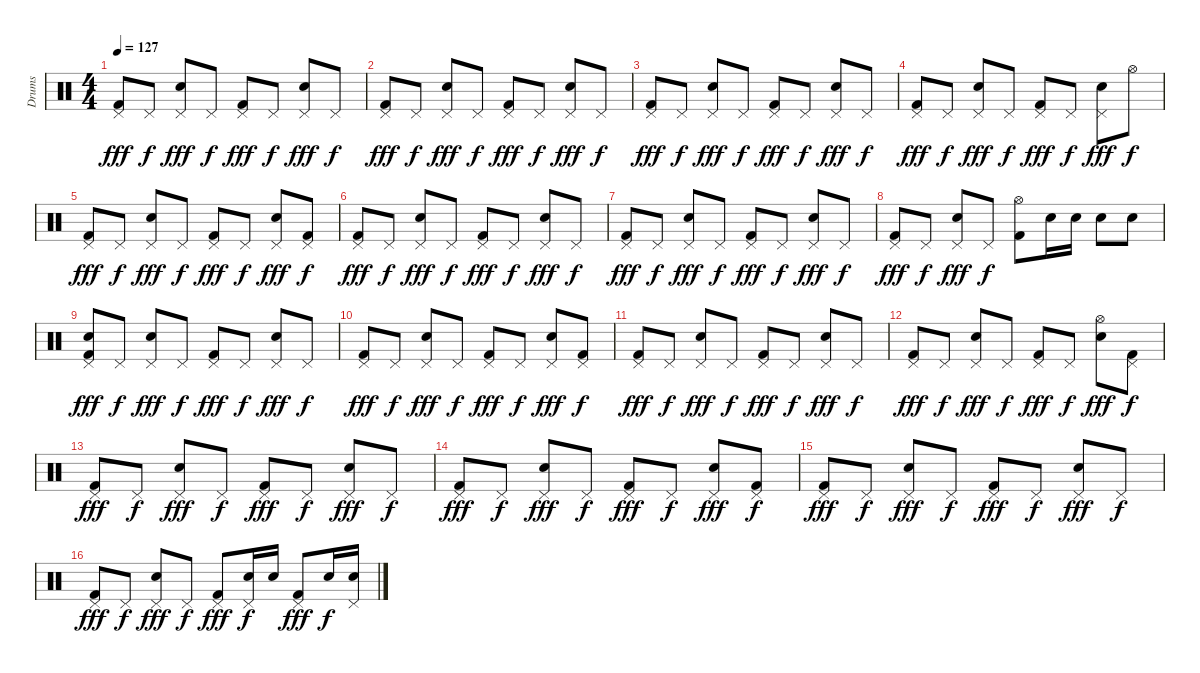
\track ("Drums" "Drums") {instrument percussion}
\staff {score}
\articulation defaults
\ts (4 4)
\tempo 127
\clef neutral
\ks c
("Pedal Hi-Hat (hit)" "Kick (hit) 2").8{dy fff} "Pedal Hi-Hat (hit)".8{dy f} ("Pedal Hi-Hat (hit)" "Snare (hit) 2").8{dy fff} "Pedal Hi-Hat (hit)".8{dy f} ("Pedal Hi-Hat (hit)" "Kick (hit) 2").8{dy fff} "Pedal Hi-Hat (hit)".8{dy f} ("Pedal Hi-Hat (hit)" "Snare (hit) 2").8{dy fff} "Pedal Hi-Hat (hit)".8{dy f} |
("Pedal Hi-Hat (hit)" "Kick (hit) 2").8{dy fff} "Pedal Hi-Hat (hit)".8{dy f} ("Pedal Hi-Hat (hit)" "Snare (hit) 2").8{dy fff} "Pedal Hi-Hat (hit)".8{dy f} ("Pedal Hi-Hat (hit)" "Kick (hit) 2").8{dy fff} "Pedal Hi-Hat (hit)".8{dy f} ("Pedal Hi-Hat (hit)" "Snare (hit) 2").8{dy fff} "Pedal Hi-Hat (hit)".8{dy f} |
("Pedal Hi-Hat (hit)" "Kick (hit) 2").8{dy fff} "Pedal Hi-Hat (hit)".8{dy f} ("Pedal Hi-Hat (hit)" "Snare (hit) 2").8{dy fff} "Pedal Hi-Hat (hit)".8{dy f} ("Pedal Hi-Hat (hit)" "Kick (hit) 2").8{dy fff} "Pedal Hi-Hat (hit)".8{dy f} ("Pedal Hi-Hat (hit)" "Snare (hit) 2").8{dy fff} "Pedal Hi-Hat (hit)".8{dy f} |
("Pedal Hi-Hat (hit)" "Kick (hit) 2").8{dy fff} "Pedal Hi-Hat (hit)".8{dy f} ("Pedal Hi-Hat (hit)" "Snare (hit) 2").8{dy fff} "Pedal Hi-Hat (hit)".8{dy f} ("Pedal Hi-Hat (hit)" "Kick (hit) 2").8{dy fff} "Pedal Hi-Hat (hit)".8{dy f} ("Pedal Hi-Hat (hit)" "Snare (hit) 2").8{dy fff} "Hi-Hat (open)".8{dy f} |
("Pedal Hi-Hat (hit)" "Kick (hit) 2").8{dy fff} "Pedal Hi-Hat (hit)".8{dy f} ("Pedal Hi-Hat (hit)" "Snare (hit) 2").8{dy fff} "Pedal Hi-Hat (hit)".8{dy f} ("Pedal Hi-Hat (hit)" "Kick (hit) 2").8{dy fff} "Pedal Hi-Hat (hit)".8{dy f} ("Pedal Hi-Hat (hit)" "Snare (hit) 2").8{dy fff} ("Pedal Hi-Hat (hit)" "Kick (hit) 2").8{dy f} |
("Pedal Hi-Hat (hit)" "Kick (hit) 2").8{dy fff} "Pedal Hi-Hat (hit)".8{dy f} ("Pedal Hi-Hat (hit)" "Snare (hit) 2").8{dy fff} "Pedal Hi-Hat (hit)".8{dy f} ("Pedal Hi-Hat (hit)" "Kick (hit) 2").8{dy fff} "Pedal Hi-Hat (hit)".8{dy f} ("Pedal Hi-Hat (hit)" "Snare (hit) 2").8{dy fff} "Pedal Hi-Hat (hit)".8{dy f} |
("Pedal Hi-Hat (hit)" "Kick (hit) 2").8{dy fff} "Pedal Hi-Hat (hit)".8{dy f} ("Pedal Hi-Hat (hit)" "Snare (hit) 2").8{dy fff} "Pedal Hi-Hat (hit)".8{dy f} ("Pedal Hi-Hat (hit)" "Kick (hit) 2").8{dy fff} "Pedal Hi-Hat (hit)".8{dy f} ("Pedal Hi-Hat (hit)" "Snare (hit) 2").8{dy fff} "Pedal Hi-Hat (hit)".8{dy f} |
("Pedal Hi-Hat (hit)" "Kick (hit) 2").8{dy fff} "Pedal Hi-Hat (hit)".8{dy f} ("Pedal Hi-Hat (hit)" "Snare (hit) 2").8{dy fff} "Pedal Hi-Hat (hit)".8{dy f} ("Hi-Hat (open)" "Kick (hit) 2").8 "Snare (hit) 2".16 "Snare (hit) 2".16 "Snare (hit) 2".8 "Snare (hit) 2".8 |
("Pedal Hi-Hat (hit)" "Snare (hit) 2" "Kick (hit) 2").8{dy fff} "Pedal Hi-Hat (hit)".8{dy f} ("Pedal Hi-Hat (hit)" "Snare (hit) 2").8{dy fff} "Pedal Hi-Hat (hit)".8{dy f} ("Pedal Hi-Hat (hit)" "Kick (hit) 2").8{dy fff} "Pedal Hi-Hat (hit)".8{dy f} ("Pedal Hi-Hat (hit)" "Snare (hit) 2").8{dy fff} "Pedal Hi-Hat (hit)".8{dy f} |
("Pedal Hi-Hat (hit)" "Kick (hit) 2").8{dy fff} "Pedal Hi-Hat (hit)".8{dy f} ("Pedal Hi-Hat (hit)" "Snare (hit) 2").8{dy fff} "Pedal Hi-Hat (hit)".8{dy f} ("Pedal Hi-Hat (hit)" "Kick (hit) 2").8{dy fff} "Pedal Hi-Hat (hit)".8{dy f} ("Pedal Hi-Hat (hit)" "Snare (hit) 2").8{dy fff} ("Pedal Hi-Hat (hit)" "Kick (hit) 2").8{dy f} |
("Pedal Hi-Hat (hit)" "Kick (hit) 2").8{dy fff} "Pedal Hi-Hat (hit)".8{dy f} ("Pedal Hi-Hat (hit)" "Snare (hit) 2").8{dy fff} "Pedal Hi-Hat (hit)".8{dy f} ("Pedal Hi-Hat (hit)" "Kick (hit) 2").8{dy fff} "Pedal Hi-Hat (hit)".8{dy f} ("Pedal Hi-Hat (hit)" "Snare (hit) 2").8{dy fff} "Pedal Hi-Hat (hit)".8{dy f} |
("Pedal Hi-Hat (hit)" "Kick (hit) 2").8{dy fff} "Pedal Hi-Hat (hit)".8{dy f} ("Pedal Hi-Hat (hit)" "Snare (hit) 2").8{dy fff} "Pedal Hi-Hat (hit)".8{dy f} ("Pedal Hi-Hat (hit)" "Kick (hit) 2").8{dy fff} "Pedal Hi-Hat (hit)".8{dy f} ("Hi-Hat (open)" "Snare (hit) 2").8{dy fff} ("Pedal Hi-Hat (hit)" "Kick (hit) 2").8{dy f} |
("Pedal Hi-Hat (hit)" "Kick (hit) 2").8{dy fff} "Pedal Hi-Hat (hit)".8{dy f} ("Pedal Hi-Hat (hit)" "Snare (hit) 2").8{dy fff} "Pedal Hi-Hat (hit)".8{dy f} ("Pedal Hi-Hat (hit)" "Kick (hit) 2").8{dy fff} "Pedal Hi-Hat (hit)".8{dy f} ("Pedal Hi-Hat (hit)" "Snare (hit) 2").8{dy fff} "Pedal Hi-Hat (hit)".8{dy f} |
("Pedal Hi-Hat (hit)" "Kick (hit) 2").8{dy fff} "Pedal Hi-Hat (hit)".8{dy f} ("Pedal Hi-Hat (hit)" "Snare (hit) 2").8{dy fff} "Pedal Hi-Hat (hit)".8{dy f} ("Pedal Hi-Hat (hit)" "Kick (hit) 2").8{dy fff} "Pedal Hi-Hat (hit)".8{dy f} ("Pedal Hi-Hat (hit)" "Snare (hit) 2").8{dy fff} ("Pedal Hi-Hat (hit)" "Kick (hit) 2").8{dy f} |
("Pedal Hi-Hat (hit)" "Kick (hit) 2").8{dy fff} "Pedal Hi-Hat (hit)".8{dy f} ("Pedal Hi-Hat (hit)" "Snare (hit) 2").8{dy fff} "Pedal Hi-Hat (hit)".8{dy f} ("Pedal Hi-Hat (hit)" "Kick (hit) 2").8{dy fff} "Pedal Hi-Hat (hit)".8{dy f} ("Pedal Hi-Hat (hit)" "Snare (hit) 2").8{dy fff} "Pedal Hi-Hat (hit)".8{dy f} |
("Pedal Hi-Hat (hit)" "Kick (hit) 2").8{dy fff} "Pedal Hi-Hat (hit)".8{dy f} ("Pedal Hi-Hat (hit)" "Snare (hit) 2").8{dy fff} "Pedal Hi-Hat (hit)".8{dy f} ("Pedal Hi-Hat (hit)" "Kick (hit) 2").8{dy fff} ("Pedal Hi-Hat (hit)" "Snare (hit) 2").16{dy f} "Snare (hit) 2".16 ("Pedal Hi-Hat (hit)" "Kick (hit) 2").8{dy fff} "Snare (hit) 2".16{dy f} ("Pedal Hi-Hat (hit)" "Snare (hit) 2").16
